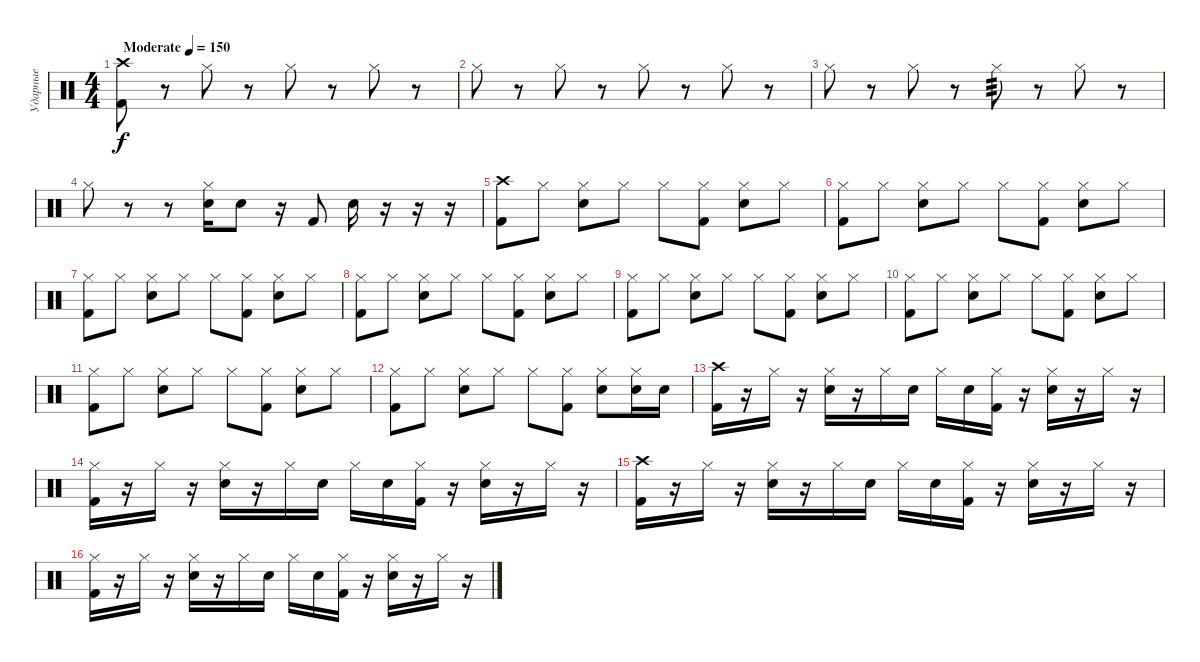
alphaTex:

\track ("Ударные" "Ударные") {instrument percussion}
\staff {score}
\articulation defaults
\ts (4 4)
\tempo (150 "Moderate")
\clef neutral
\ks c
("Kick (hit) 2" "Crash high (hit)").8{dy f} r.8 "Hi-Hat (closed)".8 r.8 "Hi-Hat (closed)".8 r.8 "Hi-Hat (closed)".8 r.8 |
"Hi-Hat (closed)".8 r.8 "Hi-Hat (closed)".8 r.8 "Hi-Hat (closed)".8 r.8 "Hi-Hat (closed)".8 r.8 |
"Hi-Hat (closed)".8 r.8 "Hi-Hat (closed)".8 r.8 "Hi-Hat (closed)".8{tp 3} r.8 "Hi-Hat (closed)".8 r.8 |
"Hi-Hat (closed)".8 r.8 r.8 ("Electric Snare (hit)" "Hi-Hat (closed)").16 "Electric Snare (hit)".8 r.16 "Kick (hit) 2".8 "Electric Snare (hit)".16 r.16 r.16 r.16 |
("Kick (hit) 2" "Crash high (hit)").8 "Hi-Hat (closed)".8 ("Electric Snare (hit)" "Hi-Hat (closed)").8 "Hi-Hat (closed)".8 "Hi-Hat (closed)".8 ("Kick (hit) 2" "Hi-Hat (closed)").8 ("Electric Snare (hit)" "Hi-Hat (closed)").8 "Hi-Hat (closed)".8 |
("Kick (hit) 2" "Hi-Hat (closed)").8 "Hi-Hat (closed)".8 ("Electric Snare (hit)" "Hi-Hat (closed)").8 "Hi-Hat (closed)".8 "Hi-Hat (closed)".8 ("Kick (hit) 2" "Hi-Hat (closed)").8 ("Electric Snare (hit)" "Hi-Hat (closed)").8 "Hi-Hat (closed)".8 |
("Kick (hit) 2" "Hi-Hat (closed)").8 "Hi-Hat (closed)".8 ("Electric Snare (hit)" "Hi-Hat (closed)").8 "Hi-Hat (closed)".8 "Hi-Hat (closed)".8 ("Kick (hit) 2" "Hi-Hat (closed)").8 ("Electric Snare (hit)" "Hi-Hat (closed)").8 "Hi-Hat (closed)".8 |
("Kick (hit) 2" "Hi-Hat (closed)").8 "Hi-Hat (closed)".8 ("Electric Snare (hit)" "Hi-Hat (closed)").8 "Hi-Hat (closed)".8 "Hi-Hat (closed)".8 ("Kick (hit) 2" "Hi-Hat (closed)").8 ("Electric Snare (hit)" "Hi-Hat (closed)").8 "Hi-Hat (closed)".8 |
("Kick (hit) 2" "Hi-Hat (closed)").8 "Hi-Hat (closed)".8 ("Electric Snare (hit)" "Hi-Hat (closed)").8 "Hi-Hat (closed)".8 "Hi-Hat (closed)".8 ("Kick (hit) 2" "Hi-Hat (closed)").8 ("Electric Snare (hit)" "Hi-Hat (closed)").8 "Hi-Hat (closed)".8 |
("Kick (hit) 2" "Hi-Hat (closed)").8 "Hi-Hat (closed)".8 ("Electric Snare (hit)" "Hi-Hat (closed)").8 "Hi-Hat (closed)".8 "Hi-Hat (closed)".8 ("Kick (hit) 2" "Hi-Hat (closed)").8 ("Electric Snare (hit)" "Hi-Hat (closed)").8 "Hi-Hat (closed)".8 |
("Kick (hit) 2" "Hi-Hat (closed)").8 "Hi-Hat (closed)".8 ("Electric Snare (hit)" "Hi-Hat (closed)").8 "Hi-Hat (closed)".8 "Hi-Hat (closed)".8 ("Kick (hit) 2" "Hi-Hat (closed)").8 ("Electric Snare (hit)" "Hi-Hat (closed)").8 "Hi-Hat (closed)".8 |
("Kick (hit) 2" "Hi-Hat (closed)").8 "Hi-Hat (closed)".8 ("Electric Snare (hit)" "Hi-Hat (closed)").8 "Hi-Hat (closed)".8 "Hi-Hat (closed)".8 ("Kick (hit) 2" "Hi-Hat (closed)").8 ("Electric Snare (hit)" "Hi-Hat (closed)").8 ("Electric Snare (hit)" "Hi-Hat (closed)").16 "Electric Snare (hit)".16 |
("Kick (hit) 2" "Crash high (hit)").16 r.16 "Hi-Hat (closed)".16 r.16 ("Electric Snare (hit)" "Hi-Hat (closed)").16 r.16 "Hi-Hat (closed)".16 "Electric Snare (hit)".16 "Hi-Hat (closed)".16 "Electric Snare (hit)".16 ("Kick (hit) 2" "Hi-Hat (closed)").16 r.16 ("Electric Snare (hit)" "Hi-Hat (closed)").16 r.16 "Hi-Hat (closed)".16 r.16 |
("Kick (hit) 2" "Hi-Hat (closed)").16 r.16 "Hi-Hat (closed)".16 r.16 ("Electric Snare (hit)" "Hi-Hat (closed)").16 r.16 "Hi-Hat (closed)".16 "Electric Snare (hit)".16 "Hi-Hat (closed)".16 "Electric Snare (hit)".16 ("Kick (hit) 2" "Hi-Hat (closed)").16 r.16 ("Electric Snare (hit)" "Hi-Hat (closed)").16 r.16 "Hi-Hat (closed)".16 r.16 |
("Kick (hit) 2" "Crash high (hit)").16 r.16 "Hi-Hat (closed)".16 r.16 ("Electric Snare (hit)" "Hi-Hat (closed)").16 r.16 "Hi-Hat (closed)".16 "Electric Snare (hit)".16 "Hi-Hat (closed)".16 "Electric Snare (hit)".16 ("Kick (hit) 2" "Hi-Hat (closed)").16 r.16 ("Electric Snare (hit)" "Hi-Hat (closed)").16 r.16 "Hi-Hat (closed)".16 r.16 |
("Kick (hit) 2" "Hi-Hat (closed)").16 r.16 "Hi-Hat (closed)".16 r.16 ("Electric Snare (hit)" "Hi-Hat (closed)").16 r.16 "Hi-Hat (closed)".16 "Electric Snare (hit)".16 "Hi-Hat (closed)".16 "Electric Snare (hit)".16 ("Kick (hit) 2" "Hi-Hat (closed)").16 r.16 ("Electric Snare (hit)" "Hi-Hat (closed)").16 r.16 "Hi-Hat (closed)".16 r.16
